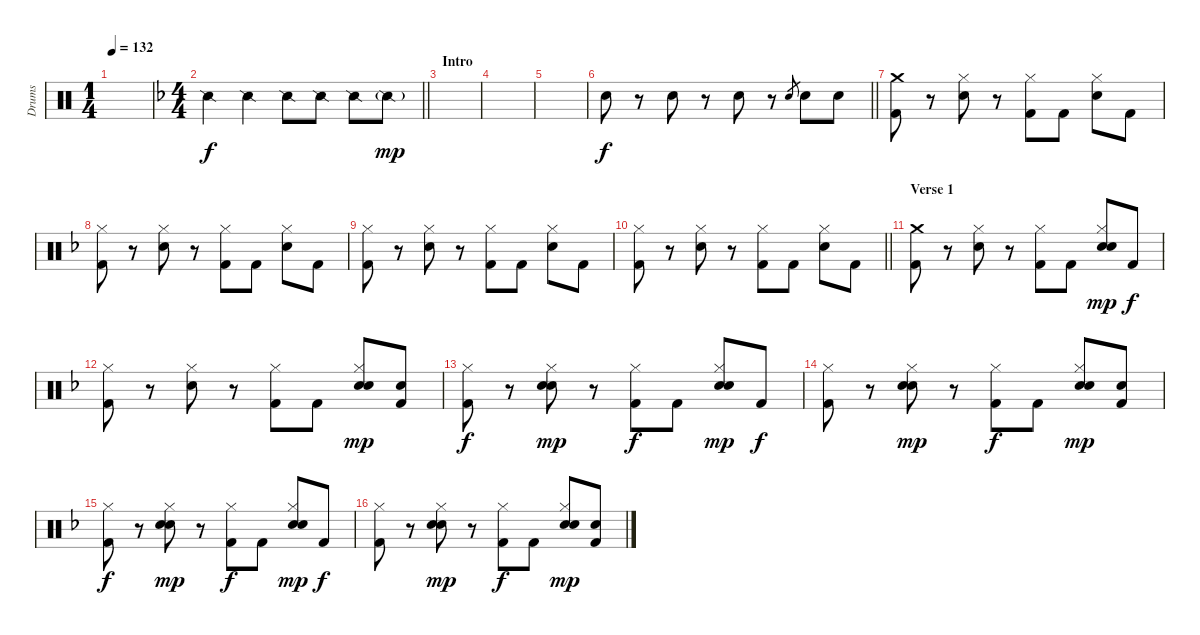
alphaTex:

\track ("Drums" "Drums") {instrument percussion}
\staff {score}
\articulation defaults
\ts (1 4)
\tempo 132
\clef neutral
\ks c
|
\ts (4 4)
\barLineRight lightlight
\ks f "Snare (side stick) 2".4 "Snare (side stick) 2".4 "Snare (side stick) 2".8 "Snare (side stick) 2".8 "Snare (side stick) 2".8 "Snare (side stick) 2"{g}.8{dy mp}
|
\section ("" "Intro")
|
|
|
\barLineRight lightlight "Snare (hit) 2".8{dy f}
r.8 "Snare (hit) 2".8 r.8 "Snare (hit) 2".8 r.8 "Snare (hit) 2".8{gr} "Snare (hit) 2".8 "Snare (hit) 2".8 |
("Crash medium (hit)" "Kick (hit) 2").8 r.8 ("Hi-Hat (closed)" "Snare (hit) 2").8 r.8 ("Hi-Hat (closed)" "Kick (hit) 2").8 "Kick (hit) 2".8 ("Hi-Hat (closed)" "Snare (hit) 2").8 "Kick (hit) 2".8 |
("Hi-Hat (closed)" "Kick (hit) 2").8 r.8 ("Hi-Hat (closed)" "Snare (hit) 2").8 r.8 ("Hi-Hat (closed)" "Kick (hit) 2").8 "Kick (hit) 2".8 ("Hi-Hat (closed)" "Snare (hit) 2").8 "Kick (hit) 2".8 |
("Hi-Hat (closed)" "Kick (hit) 2").8 r.8 ("Hi-Hat (closed)" "Snare (hit) 2").8 r.8 ("Hi-Hat (closed)" "Kick (hit) 2").8 "Kick (hit) 2".8 ("Hi-Hat (closed)" "Snare (hit) 2").8 "Kick (hit) 2".8 |
\barLineRight lightlight
("Hi-Hat (closed)" "Kick (hit) 2").8 r.8 ("Hi-Hat (closed)" "Snare (hit) 2").8 r.8 ("Hi-Hat (closed)" "Kick (hit) 2").8 "Kick (hit) 2".8 ("Hi-Hat (closed)" "Snare (hit) 2").8 "Kick (hit) 2".8 |
\section ("" "Verse 1")
("Crash medium (hit)" "Kick (hit) 2").8 r.8 ("Hi-Hat (closed)" "Snare (hit) 2").8 r.8 ("Hi-Hat (closed)" "Kick (hit) 2").8 "Kick (hit) 2".8 ("Hi-Hat (closed)" "Hand Clap (hit)" "Snare (hit) 2").8{dy mp} "Kick (hit) 2".8{dy f} |
("Hi-Hat (closed)" "Kick (hit) 2").8 r.8 ("Hi-Hat (closed)" "Snare (hit) 2").8 r.8 ("Hi-Hat (closed)" "Kick (hit) 2").8 "Kick (hit) 2".8 ("Hi-Hat (closed)" "Hand Clap (hit)" "Snare (hit) 2").8{dy mp} ("Hand Clap (hit)" "Kick (hit) 2").8 |
("Hi-Hat (closed)" "Kick (hit) 2").8{dy f} r.8 ("Hi-Hat (closed)" "Hand Clap (hit)" "Snare (hit) 2").8{dy mp} r.8 ("Hi-Hat (closed)" "Kick (hit) 2").8{dy f} "Kick (hit) 2".8 ("Hi-Hat (closed)" "Hand Clap (hit)" "Snare (hit) 2").8{dy mp} "Kick (hit) 2".8{dy f} |
("Hi-Hat (closed)" "Kick (hit) 2").8 r.8 ("Hi-Hat (closed)" "Hand Clap (hit)" "Snare (hit) 2").8{dy mp} r.8 ("Hi-Hat (closed)" "Kick (hit) 2").8{dy f} "Kick (hit) 2".8 ("Hi-Hat (closed)" "Hand Clap (hit)" "Snare (hit) 2").8{dy mp} ("Hand Clap (hit)" "Kick (hit) 2").8 |
("Hi-Hat (closed)" "Kick (hit) 2").8{dy f} r.8 ("Hi-Hat (closed)" "Hand Clap (hit)" "Snare (hit) 2").8{dy mp} r.8 ("Hi-Hat (closed)" "Kick (hit) 2").8{dy f} "Kick (hit) 2".8 ("Hi-Hat (closed)" "Hand Clap (hit)" "Snare (hit) 2").8{dy mp} "Kick (hit) 2".8{dy f} |
("Hi-Hat (closed)" "Kick (hit) 2").8 r.8 ("Hi-Hat (closed)" "Hand Clap (hit)" "Snare (hit) 2").8{dy mp} r.8 ("Hi-Hat (closed)" "Kick (hit) 2").8{dy f} "Kick (hit) 2".8 ("Hi-Hat (closed)" "Hand Clap (hit)" "Snare (hit) 2").8{dy mp} ("Hand Clap (hit)" "Kick (hit) 2").8
